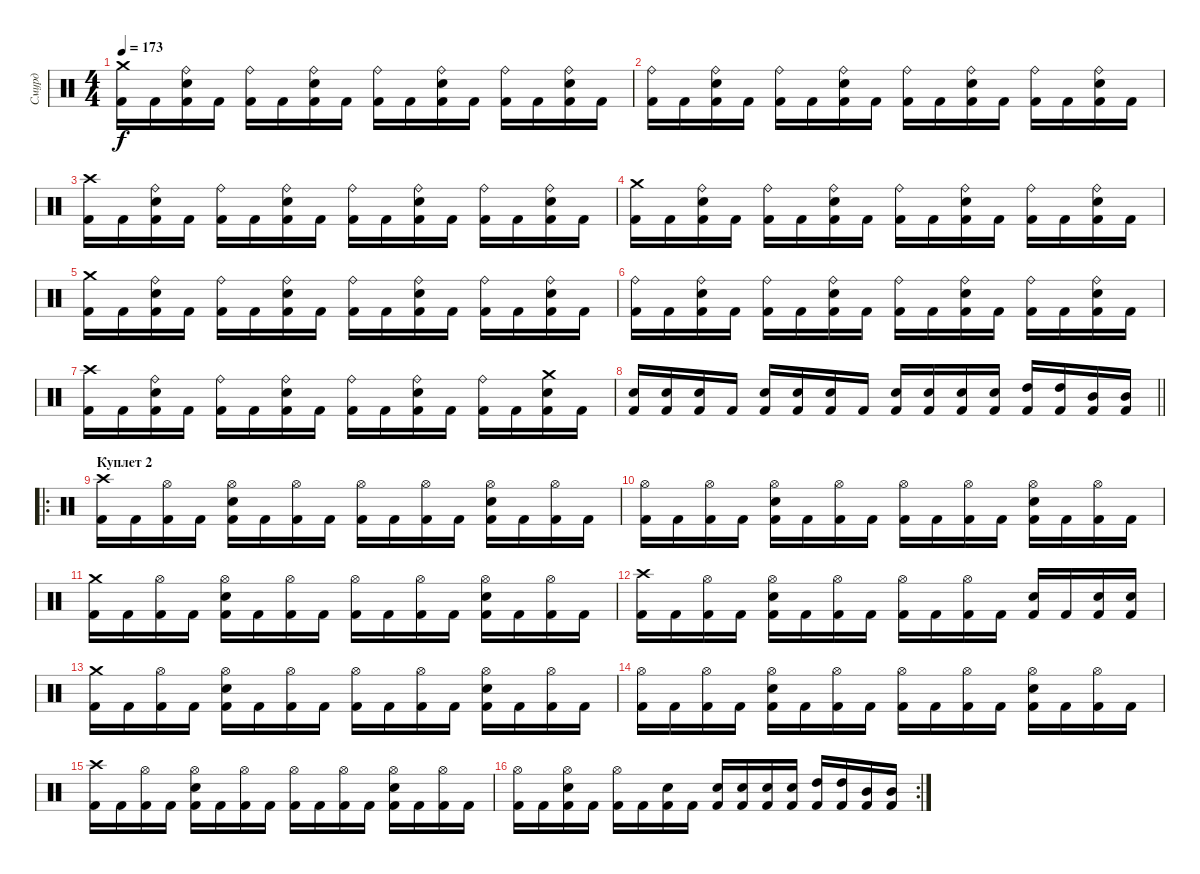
\track ("Смурд" "Смурд") {instrument percussion}
\staff {score}
\articulation defaults
\ts (4 4)
\tempo 173
\clef neutral
\ks c
("Crash medium (hit)" "Kick (hit) 2").16{dy f} "Kick (hit) 2".16 ("Ride (bell)" "Electric Snare (hit)" "Kick (hit) 2").16 "Kick (hit) 2".16 ("Ride (bell)" "Kick (hit) 2").16 "Kick (hit) 2".16 ("Ride (bell)" "Electric Snare (hit)" "Kick (hit) 2").16 "Kick (hit) 2".16 ("Ride (bell)" "Kick (hit) 2").16 "Kick (hit) 2".16 ("Ride (bell)" "Electric Snare (hit)" "Kick (hit) 2").16 "Kick (hit) 2".16 ("Ride (bell)" "Kick (hit) 2").16 "Kick (hit) 2".16 ("Ride (bell)" "Electric Snare (hit)" "Kick (hit) 2").16 "Kick (hit) 2".16 |
("Ride (bell)" "Kick (hit) 2").16 "Kick (hit) 2".16 ("Ride (bell)" "Electric Snare (hit)" "Kick (hit) 2").16 "Kick (hit) 2".16 ("Ride (bell)" "Kick (hit) 2").16 "Kick (hit) 2".16 ("Ride (bell)" "Electric Snare (hit)" "Kick (hit) 2").16 "Kick (hit) 2".16 ("Ride (bell)" "Kick (hit) 2").16 "Kick (hit) 2".16 ("Ride (bell)" "Electric Snare (hit)" "Kick (hit) 2").16 "Kick (hit) 2".16 ("Ride (bell)" "Kick (hit) 2").16 "Kick (hit) 2".16 ("Ride (bell)" "Electric Snare (hit)" "Kick (hit) 2").16 "Kick (hit) 2".16 |
("Crash high (hit)" "Kick (hit) 2").16 "Kick (hit) 2".16 ("Ride (bell)" "Electric Snare (hit)" "Kick (hit) 2").16 "Kick (hit) 2".16 ("Ride (bell)" "Kick (hit) 2").16 "Kick (hit) 2".16 ("Ride (bell)" "Electric Snare (hit)" "Kick (hit) 2").16 "Kick (hit) 2".16 ("Ride (bell)" "Kick (hit) 2").16 "Kick (hit) 2".16 ("Ride (bell)" "Electric Snare (hit)" "Kick (hit) 2").16 "Kick (hit) 2".16 ("Ride (bell)" "Kick (hit) 2").16 "Kick (hit) 2".16 ("Ride (bell)" "Electric Snare (hit)" "Kick (hit) 2").16 "Kick (hit) 2".16 |
("Crash medium (hit)" "Kick (hit) 2").16 "Kick (hit) 2".16 ("Ride (bell)" "Electric Snare (hit)" "Kick (hit) 2").16 "Kick (hit) 2".16 ("Ride (bell)" "Kick (hit) 2").16 "Kick (hit) 2".16 ("Ride (bell)" "Electric Snare (hit)" "Kick (hit) 2").16 "Kick (hit) 2".16 ("Ride (bell)" "Kick (hit) 2").16 "Kick (hit) 2".16 ("Ride (bell)" "Electric Snare (hit)" "Kick (hit) 2").16 "Kick (hit) 2".16 ("Ride (bell)" "Kick (hit) 2").16 "Kick (hit) 2".16 ("Ride (bell)" "Electric Snare (hit)" "Kick (hit) 2").16 "Kick (hit) 2".16 |
("Crash medium (hit)" "Kick (hit) 2").16 "Kick (hit) 2".16 ("Ride (bell)" "Electric Snare (hit)" "Kick (hit) 2").16 "Kick (hit) 2".16 ("Ride (bell)" "Kick (hit) 2").16 "Kick (hit) 2".16 ("Ride (bell)" "Electric Snare (hit)" "Kick (hit) 2").16 "Kick (hit) 2".16 ("Ride (bell)" "Kick (hit) 2").16 "Kick (hit) 2".16 ("Ride (bell)" "Electric Snare (hit)" "Kick (hit) 2").16 "Kick (hit) 2".16 ("Ride (bell)" "Kick (hit) 2").16 "Kick (hit) 2".16 ("Ride (bell)" "Electric Snare (hit)" "Kick (hit) 2").16 "Kick (hit) 2".16 |
("Ride (bell)" "Kick (hit) 2").16 "Kick (hit) 2".16 ("Ride (bell)" "Electric Snare (hit)" "Kick (hit) 2").16 "Kick (hit) 2".16 ("Ride (bell)" "Kick (hit) 2").16 "Kick (hit) 2".16 ("Ride (bell)" "Electric Snare (hit)" "Kick (hit) 2").16 "Kick (hit) 2".16 ("Ride (bell)" "Kick (hit) 2").16 "Kick (hit) 2".16 ("Ride (bell)" "Electric Snare (hit)" "Kick (hit) 2").16 "Kick (hit) 2".16 ("Ride (bell)" "Kick (hit) 2").16 "Kick (hit) 2".16 ("Ride (bell)" "Electric Snare (hit)" "Kick (hit) 2").16 "Kick (hit) 2".16 |
("Crash high (hit)" "Kick (hit) 2").16 "Kick (hit) 2".16 ("Ride (bell)" "Electric Snare (hit)" "Kick (hit) 2").16 "Kick (hit) 2".16 ("Ride (bell)" "Kick (hit) 2").16 "Kick (hit) 2".16 ("Ride (bell)" "Electric Snare (hit)" "Kick (hit) 2").16 "Kick (hit) 2".16 ("Ride (bell)" "Kick (hit) 2").16 "Kick (hit) 2".16 ("Ride (bell)" "Electric Snare (hit)" "Kick (hit) 2").16 "Kick (hit) 2".16 ("Ride (bell)" "Kick (hit) 2").16 "Kick (hit) 2".16 ("Crash medium (hit)" "Electric Snare (hit)" "Kick (hit) 2").16 "Kick (hit) 2".16 |
\barLineRight lightlight
("Electric Snare (hit)" "Kick (hit) 2").16 ("Electric Snare (hit)" "Kick (hit) 2").16 ("Electric Snare (hit)" "Kick (hit) 2").16 "Kick (hit) 2".16 ("Electric Snare (hit)" "Kick (hit) 2").16 ("Electric Snare (hit)" "Kick (hit) 2").16 ("Electric Snare (hit)" "Kick (hit) 2").16 "Kick (hit) 2".16 ("Electric Snare (hit)" "Kick (hit) 2").16 ("Electric Snare (hit)" "Kick (hit) 2").16 ("Electric Snare (hit)" "Kick (hit) 2").16 ("Electric Snare (hit)" "Kick (hit) 2").16 ("High Tom (hit)" "Kick (hit) 2").16 ("High Tom (hit)" "Kick (hit) 2").16 ("Mid Tom (hit)" "Kick (hit) 2").16 ("Mid Tom (hit)" "Kick (hit) 2").16 |
\ro
\section ("" "Куплет 2")
("Crash high (hit)" "Kick (hit) 2").16 "Kick (hit) 2".16 ("Hi-Hat (open)" "Kick (hit) 2").16 "Kick (hit) 2".16 ("Hi-Hat (open)" "Electric Snare (hit)" "Kick (hit) 2").16 "Kick (hit) 2".16 ("Hi-Hat (open)" "Kick (hit) 2").16 "Kick (hit) 2".16 ("Hi-Hat (open)" "Kick (hit) 2").16 "Kick (hit) 2".16 ("Hi-Hat (open)" "Kick (hit) 2").16 "Kick (hit) 2".16 ("Hi-Hat (open)" "Electric Snare (hit)" "Kick (hit) 2").16 "Kick (hit) 2".16 ("Hi-Hat (open)" "Kick (hit) 2").16 "Kick (hit) 2".16 |
("Hi-Hat (open)" "Kick (hit) 2").16 "Kick (hit) 2".16 ("Hi-Hat (open)" "Kick (hit) 2").16 "Kick (hit) 2".16 ("Hi-Hat (open)" "Electric Snare (hit)" "Kick (hit) 2").16 "Kick (hit) 2".16 ("Hi-Hat (open)" "Kick (hit) 2").16 "Kick (hit) 2".16 ("Hi-Hat (open)" "Kick (hit) 2").16 "Kick (hit) 2".16 ("Hi-Hat (open)" "Kick (hit) 2").16 "Kick (hit) 2".16 ("Hi-Hat (open)" "Electric Snare (hit)" "Kick (hit) 2").16 "Kick (hit) 2".16 ("Hi-Hat (open)" "Kick (hit) 2").16 "Kick (hit) 2".16 |
("Crash medium (hit)" "Kick (hit) 2").16 "Kick (hit) 2".16 ("Hi-Hat (open)" "Kick (hit) 2").16 "Kick (hit) 2".16 ("Hi-Hat (open)" "Electric Snare (hit)" "Kick (hit) 2").16 "Kick (hit) 2".16 ("Hi-Hat (open)" "Kick (hit) 2").16 "Kick (hit) 2".16 ("Hi-Hat (open)" "Kick (hit) 2").16 "Kick (hit) 2".16 ("Hi-Hat (open)" "Kick (hit) 2").16 "Kick (hit) 2".16 ("Hi-Hat (open)" "Electric Snare (hit)" "Kick (hit) 2").16 "Kick (hit) 2".16 ("Hi-Hat (open)" "Kick (hit) 2").16 "Kick (hit) 2".16 |
("Crash high (hit)" "Kick (hit) 2").16 "Kick (hit) 2".16 ("Hi-Hat (open)" "Kick (hit) 2").16 "Kick (hit) 2".16 ("Hi-Hat (open)" "Electric Snare (hit)" "Kick (hit) 2").16 "Kick (hit) 2".16 ("Hi-Hat (open)" "Kick (hit) 2").16 "Kick (hit) 2".16 ("Hi-Hat (open)" "Kick (hit) 2").16 "Kick (hit) 2".16 ("Hi-Hat (open)" "Kick (hit) 2").16 "Kick (hit) 2".16 ("Electric Snare (hit)" "Kick (hit) 2").16 "Kick (hit) 2".16 ("Electric Snare (hit)" "Kick (hit) 2").16 ("Electric Snare (hit)" "Kick (hit) 2").16 |
("Crash medium (hit)" "Kick (hit) 2").16 "Kick (hit) 2".16 ("Hi-Hat (open)" "Kick (hit) 2").16 "Kick (hit) 2".16 ("Hi-Hat (open)" "Electric Snare (hit)" "Kick (hit) 2").16 "Kick (hit) 2".16 ("Hi-Hat (open)" "Kick (hit) 2").16 "Kick (hit) 2".16 ("Hi-Hat (open)" "Kick (hit) 2").16 "Kick (hit) 2".16 ("Hi-Hat (open)" "Kick (hit) 2").16 "Kick (hit) 2".16 ("Hi-Hat (open)" "Electric Snare (hit)" "Kick (hit) 2").16 "Kick (hit) 2".16 ("Hi-Hat (open)" "Kick (hit) 2").16 "Kick (hit) 2".16 |
("Hi-Hat (open)" "Kick (hit) 2").16 "Kick (hit) 2".16 ("Hi-Hat (open)" "Kick (hit) 2").16 "Kick (hit) 2".16 ("Hi-Hat (open)" "Electric Snare (hit)" "Kick (hit) 2").16 "Kick (hit) 2".16 ("Hi-Hat (open)" "Kick (hit) 2").16 "Kick (hit) 2".16 ("Hi-Hat (open)" "Kick (hit) 2").16 "Kick (hit) 2".16 ("Hi-Hat (open)" "Kick (hit) 2").16 "Kick (hit) 2".16 ("Hi-Hat (open)" "Electric Snare (hit)" "Kick (hit) 2").16 "Kick (hit) 2".16 ("Hi-Hat (open)" "Kick (hit) 2").16 "Kick (hit) 2".16 |
("Crash high (hit)" "Kick (hit) 2").16 "Kick (hit) 2".16 ("Hi-Hat (open)" "Kick (hit) 2").16 "Kick (hit) 2".16 ("Hi-Hat (open)" "Electric Snare (hit)" "Kick (hit) 2").16 "Kick (hit) 2".16 ("Hi-Hat (open)" "Kick (hit) 2").16 "Kick (hit) 2".16 ("Hi-Hat (open)" "Kick (hit) 2").16 "Kick (hit) 2".16 ("Hi-Hat (open)" "Kick (hit) 2").16 "Kick (hit) 2".16 ("Hi-Hat (open)" "Electric Snare (hit)" "Kick (hit) 2").16 "Kick (hit) 2".16 ("Hi-Hat (open)" "Kick (hit) 2").16 "Kick (hit) 2".16 |
\rc 2
("Hi-Hat (open)" "Kick (hit) 2").16 "Kick (hit) 2".16 ("Hi-Hat (open)" "Electric Snare (hit)" "Kick (hit) 2").16 "Kick (hit) 2".16 ("Hi-Hat (open)" "Kick (hit) 2").16 "Kick (hit) 2".16 ("Electric Snare (hit)" "Kick (hit) 2").16 "Kick (hit) 2".16 ("Electric Snare (hit)" "Kick (hit) 2").16 ("Electric Snare (hit)" "Kick (hit) 2").16 ("Electric Snare (hit)" "Kick (hit) 2").16 ("Electric Snare (hit)" "Kick (hit) 2").16 ("High Tom (hit)" "Kick (hit) 2").16 ("High Tom (hit)" "Kick (hit) 2").16 ("Mid Tom (hit)" "Kick (hit) 2").16 ("Mid Tom (hit)" "Kick (hit) 2").16
